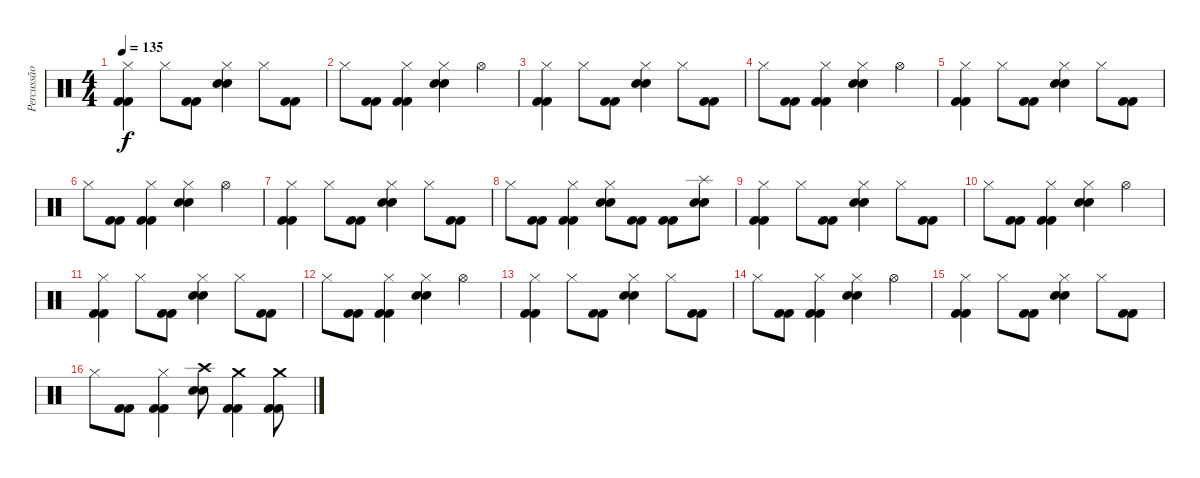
\track ("Percussão" "Percussão") {instrument percussion}
\staff {score}
\articulation defaults
\ts (4 4)
\tempo 135
\clef neutral
\ks c
("Hi-Hat (closed)" "Kick (hit) 2" "Kick (hit) 2").4{dy f} "Hi-Hat (closed)".8 ("Kick (hit) 2" "Kick (hit) 2").8 ("Hi-Hat (closed)" "Electric Snare (hit)" "Electric Snare (hit)").4 "Hi-Hat (closed)".8 ("Kick (hit) 2" "Kick (hit) 2").8 |
"Hi-Hat (closed)".8 ("Kick (hit) 2" "Kick (hit) 2").8 ("Hi-Hat (closed)" "Kick (hit) 2" "Kick (hit) 2").4 ("Hi-Hat (closed)" "Electric Snare (hit)" "Electric Snare (hit)").4 "Hi-Hat (open)".4 |
("Hi-Hat (closed)" "Kick (hit) 2" "Kick (hit) 2").4 "Hi-Hat (closed)".8 ("Kick (hit) 2" "Kick (hit) 2").8 ("Hi-Hat (closed)" "Electric Snare (hit)" "Electric Snare (hit)").4 "Hi-Hat (closed)".8 ("Kick (hit) 2" "Kick (hit) 2").8 |
"Hi-Hat (closed)".8 ("Kick (hit) 2" "Kick (hit) 2").8 ("Hi-Hat (closed)" "Kick (hit) 2" "Kick (hit) 2").4 ("Hi-Hat (closed)" "Electric Snare (hit)" "Electric Snare (hit)").4 "Hi-Hat (open)".4 |
("Hi-Hat (closed)" "Kick (hit) 2" "Kick (hit) 2").4 "Hi-Hat (closed)".8 ("Kick (hit) 2" "Kick (hit) 2").8 ("Hi-Hat (closed)" "Electric Snare (hit)" "Electric Snare (hit)").4 "Hi-Hat (closed)".8 ("Kick (hit) 2" "Kick (hit) 2").8 |
"Hi-Hat (closed)".8 ("Kick (hit) 2" "Kick (hit) 2").8 ("Hi-Hat (closed)" "Kick (hit) 2" "Kick (hit) 2").4 ("Hi-Hat (closed)" "Electric Snare (hit)" "Electric Snare (hit)").4 "Hi-Hat (open)".4 |
("Hi-Hat (closed)" "Kick (hit) 2" "Kick (hit) 2").4 "Hi-Hat (closed)".8 ("Kick (hit) 2" "Kick (hit) 2").8 ("Hi-Hat (closed)" "Electric Snare (hit)" "Electric Snare (hit)").4 "Hi-Hat (closed)".8 ("Kick (hit) 2" "Kick (hit) 2").8 |
"Hi-Hat (closed)".8 ("Kick (hit) 2" "Kick (hit) 2").8 ("Hi-Hat (closed)" "Kick (hit) 2" "Kick (hit) 2").4 ("Hi-Hat (closed)" "Electric Snare (hit)" "Electric Snare (hit)").8 ("Kick (hit) 2" "Kick (hit) 2").8 ("Kick (hit) 2" "Kick (hit) 2").8 ("Splash (hit)" "Electric Snare (hit)" "Electric Snare (hit)").8 |
("Hi-Hat (closed)" "Kick (hit) 2" "Kick (hit) 2").4 "Hi-Hat (closed)".8 ("Kick (hit) 2" "Kick (hit) 2").8 ("Hi-Hat (closed)" "Electric Snare (hit)" "Electric Snare (hit)").4 "Hi-Hat (closed)".8 ("Kick (hit) 2" "Kick (hit) 2").8 |
"Hi-Hat (closed)".8 ("Kick (hit) 2" "Kick (hit) 2").8 ("Hi-Hat (closed)" "Kick (hit) 2" "Kick (hit) 2").4 ("Hi-Hat (closed)" "Electric Snare (hit)" "Electric Snare (hit)").4 "Hi-Hat (open)".4 |
("Hi-Hat (closed)" "Kick (hit) 2" "Kick (hit) 2").4 "Hi-Hat (closed)".8 ("Kick (hit) 2" "Kick (hit) 2").8 ("Hi-Hat (closed)" "Electric Snare (hit)" "Electric Snare (hit)").4 "Hi-Hat (closed)".8 ("Kick (hit) 2" "Kick (hit) 2").8 |
"Hi-Hat (closed)".8 ("Kick (hit) 2" "Kick (hit) 2").8 ("Hi-Hat (closed)" "Kick (hit) 2" "Kick (hit) 2").4 ("Hi-Hat (closed)" "Electric Snare (hit)" "Electric Snare (hit)").4 "Hi-Hat (open)".4 |
("Hi-Hat (closed)" "Kick (hit) 2" "Kick (hit) 2").4 "Hi-Hat (closed)".8 ("Kick (hit) 2" "Kick (hit) 2").8 ("Hi-Hat (closed)" "Electric Snare (hit)" "Electric Snare (hit)").4 "Hi-Hat (closed)".8 ("Kick (hit) 2" "Kick (hit) 2").8 |
"Hi-Hat (closed)".8 ("Kick (hit) 2" "Kick (hit) 2").8 ("Hi-Hat (closed)" "Kick (hit) 2" "Kick (hit) 2").4 ("Hi-Hat (closed)" "Electric Snare (hit)" "Electric Snare (hit)").4 "Hi-Hat (open)".4 |
("Hi-Hat (closed)" "Kick (hit) 2" "Kick (hit) 2").4 "Hi-Hat (closed)".8 ("Kick (hit) 2" "Kick (hit) 2").8 ("Hi-Hat (closed)" "Electric Snare (hit)" "Electric Snare (hit)").4 "Hi-Hat (closed)".8 ("Kick (hit) 2" "Kick (hit) 2").8 |
"Hi-Hat (closed)".8 ("Kick (hit) 2" "Kick (hit) 2").8 ("Hi-Hat (closed)" "Kick (hit) 2" "Kick (hit) 2").4 ("Crash high (hit)" "Electric Snare (hit)" "Electric Snare (hit)").8 ("Crash medium (hit)" "Kick (hit) 2" "Kick (hit) 2").4 ("Crash medium (hit)" "Kick (hit) 2" "Kick (hit) 2").8
